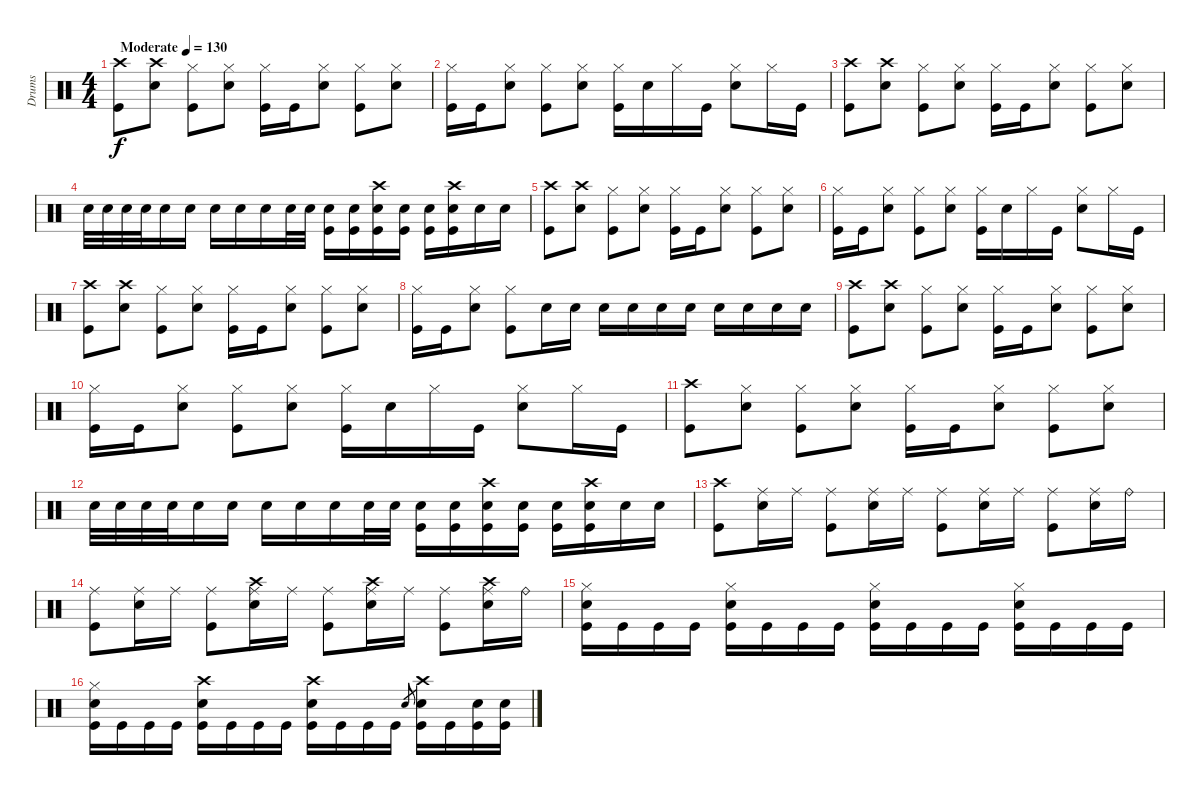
\track ("Drums" "Drums") {instrument percussion}
\staff {score}
\articulation defaults
\ts (4 4)
\tempo (130 "Moderate")
\clef neutral
\ks c
("Crash high (hit)" "Kick (hit)").8{dy f} ("Crash high (hit)" "Snare (hit) 2").8 ("Hi-Hat (closed)" "Kick (hit)").8 ("Hi-Hat (closed)" "Snare (hit) 2").8 ("Hi-Hat (closed)" "Kick (hit)").16 "Kick (hit)".16 ("Hi-Hat (closed)" "Snare (hit) 2").8 ("Hi-Hat (closed)" "Kick (hit)").8 ("Hi-Hat (closed)" "Snare (hit) 2").8 |
("Hi-Hat (closed)" "Kick (hit)").16 "Kick (hit)".16 ("Hi-Hat (closed)" "Snare (hit) 2").8 ("Hi-Hat (closed)" "Kick (hit)").8 ("Hi-Hat (closed)" "Snare (hit) 2").8 ("Hi-Hat (closed)" "Kick (hit)").16 "Snare (hit) 2".16 "Hi-Hat (closed)".16 "Kick (hit)".16 ("Hi-Hat (closed)" "Snare (hit) 2").8 "Hi-Hat (closed)".16 "Kick (hit)".16 |
("Crash high (hit)" "Kick (hit)").8 ("Crash high (hit)" "Snare (hit) 2").8 ("Hi-Hat (closed)" "Kick (hit)").8 ("Hi-Hat (closed)" "Snare (hit) 2").8 ("Hi-Hat (closed)" "Kick (hit)").16 "Kick (hit)".16 ("Hi-Hat (closed)" "Snare (hit) 2").8 ("Hi-Hat (closed)" "Kick (hit)").8 ("Hi-Hat (closed)" "Snare (hit) 2").8 |
"Snare (hit) 2".32 "Snare (hit) 2".32 "Snare (hit) 2".32 "Snare (hit) 2".32 "Snare (hit) 2".16 "Snare (hit) 2".16 "Snare (hit) 2".16 "Snare (hit) 2".16 "Snare (hit) 2".16 "Snare (hit) 2".32 "Snare (hit) 2".32 ("Snare (hit) 2" "Kick (hit)").16 ("Snare (hit) 2" "Kick (hit)").16 ("Crash high (hit)" "Kick (hit)" "Snare (hit) 2").16 ("Kick (hit)" "Snare (hit) 2").16 ("Snare (hit) 2" "Kick (hit)").16 ("Crash high (hit)" "Kick (hit)" "Snare (hit) 2").16 "Snare (hit) 2".16 "Snare (hit) 2".16 |
("Crash high (hit)" "Kick (hit)").8 ("Crash high (hit)" "Snare (hit) 2").8 ("Hi-Hat (closed)" "Kick (hit)").8 ("Hi-Hat (closed)" "Snare (hit) 2").8 ("Hi-Hat (closed)" "Kick (hit)").16 "Kick (hit)".16 ("Hi-Hat (closed)" "Snare (hit) 2").8 ("Hi-Hat (closed)" "Kick (hit)").8 ("Hi-Hat (closed)" "Snare (hit) 2").8 |
("Hi-Hat (closed)" "Kick (hit)").16 "Kick (hit)".16 ("Hi-Hat (closed)" "Snare (hit) 2").8 ("Hi-Hat (closed)" "Kick (hit)").8 ("Hi-Hat (closed)" "Snare (hit) 2").8 ("Hi-Hat (closed)" "Kick (hit)").16 "Snare (hit) 2".16 "Hi-Hat (closed)".16 "Kick (hit)".16 ("Hi-Hat (closed)" "Snare (hit) 2").8 "Hi-Hat (closed)".16 "Kick (hit)".16 |
("Crash high (hit)" "Kick (hit)").8 ("Crash high (hit)" "Snare (hit) 2").8 ("Hi-Hat (closed)" "Kick (hit)").8 ("Hi-Hat (closed)" "Snare (hit) 2").8 ("Hi-Hat (closed)" "Kick (hit)").16 "Kick (hit)".16 ("Hi-Hat (closed)" "Snare (hit) 2").8 ("Hi-Hat (closed)" "Kick (hit)").8 ("Hi-Hat (closed)" "Snare (hit) 2").8 |
("Hi-Hat (closed)" "Kick (hit)").16 "Kick (hit)".16 ("Hi-Hat (closed)" "Snare (hit) 2").8 ("Hi-Hat (closed)" "Kick (hit)").8 "Snare (hit) 2".16 "Snare (hit) 2".16 "Snare (hit) 2".16 "Snare (hit) 2".16 "Snare (hit) 2".16 "Snare (hit) 2".16 "Snare (hit) 2".16 "Snare (hit) 2".16 "Snare (hit) 2".16 "Snare (hit) 2".16 |
("Crash high (hit)" "Kick (hit)").8 ("Crash high (hit)" "Snare (hit) 2").8 ("Hi-Hat (closed)" "Kick (hit)").8 ("Hi-Hat (closed)" "Snare (hit) 2").8 ("Hi-Hat (closed)" "Kick (hit)").16 "Kick (hit)".16 ("Hi-Hat (closed)" "Snare (hit) 2").8 ("Hi-Hat (closed)" "Kick (hit)").8 ("Hi-Hat (closed)" "Snare (hit) 2").8 |
("Hi-Hat (closed)" "Kick (hit)").16 "Kick (hit)".16 ("Hi-Hat (closed)" "Snare (hit) 2").8 ("Hi-Hat (closed)" "Kick (hit)").8 ("Hi-Hat (closed)" "Snare (hit) 2").8 ("Hi-Hat (closed)" "Kick (hit)").16 "Snare (hit) 2".16 "Hi-Hat (closed)".16 "Kick (hit)".16 ("Hi-Hat (closed)" "Snare (hit) 2").8 "Hi-Hat (closed)".16 "Kick (hit)".16 |
("Crash high (hit)" "Kick (hit)").8 ("Hi-Hat (closed)" "Snare (hit) 2").8 ("Hi-Hat (closed)" "Kick (hit)").8 ("Hi-Hat (closed)" "Snare (hit) 2").8 ("Hi-Hat (closed)" "Kick (hit)").16 "Kick (hit)".16 ("Hi-Hat (closed)" "Snare (hit) 2").8 ("Hi-Hat (closed)" "Kick (hit)").8 ("Hi-Hat (closed)" "Snare (hit) 2").8 |
"Snare (hit) 2".32 "Snare (hit) 2".32 "Snare (hit) 2".32 "Snare (hit) 2".32 "Snare (hit) 2".16 "Snare (hit) 2".16 "Snare (hit) 2".16 "Snare (hit) 2".16 "Snare (hit) 2".16 "Snare (hit) 2".32 "Snare (hit) 2".32 ("Snare (hit) 2" "Kick (hit)").16 ("Snare (hit) 2" "Kick (hit)").16 ("Crash high (hit)" "Kick (hit)" "Snare (hit) 2").16 ("Kick (hit)" "Snare (hit) 2").16 ("Snare (hit) 2" "Kick (hit)").16 ("Crash high (hit)" "Kick (hit)" "Snare (hit) 2").16 "Snare (hit) 2".16 "Snare (hit) 2".16 |
("Crash high (hit)" "Kick (hit)").8 ("Ride (middle)" "Snare (hit) 2").16 "Ride (middle)".16 ("Ride (middle)" "Kick (hit)").8 ("Ride (middle)" "Snare (hit) 2").16 "Ride (middle)".16 ("Ride (middle)" "Kick (hit)").8 ("Ride (middle)" "Snare (hit) 2").16 "Ride (middle)".16 ("Ride (middle)" "Kick (hit)").8 ("Ride (middle)" "Snare (hit) 2").16 "Ride (bell)".16 |
("Ride (middle)" "Kick (hit)").8 ("Ride (middle)" "Snare (hit) 2").16 "Ride (middle)".16 ("Ride (middle)" "Kick (hit)").8 ("Ride (middle)" "Snare (hit) 2" "Crash high (hit)").16 "Ride (middle)".16 ("Ride (middle)" "Kick (hit)").8 ("Ride (middle)" "Snare (hit) 2" "Crash high (hit)").16 "Ride (middle)".16 ("Ride (middle)" "Kick (hit)").8 ("Ride (middle)" "Snare (hit) 2" "Crash high (hit)").16 "Ride (bell)".16 |
("Kick (hit)" "Snare (hit) 2" "Hi-Hat (closed)").16 "Kick (hit)".16 "Kick (hit)".16 "Kick (hit)".16 ("Kick (hit)" "Snare (hit) 2" "Hi-Hat (closed)").16 "Kick (hit)".16 "Kick (hit)".16 "Kick (hit)".16 ("Kick (hit)" "Snare (hit) 2" "Hi-Hat (closed)").16 "Kick (hit)".16 "Kick (hit)".16 "Kick (hit)".16 ("Kick (hit)" "Snare (hit) 2" "Hi-Hat (closed)").16 "Kick (hit)".16 "Kick (hit)".16 "Kick (hit)".16 |
("Kick (hit)" "Snare (hit) 2" "Hi-Hat (closed)").16 "Kick (hit)".16 "Kick (hit)".16 "Kick (hit)".16 ("Kick (hit)" "Snare (hit) 2" "Crash high (hit)").16 "Kick (hit)".16 "Kick (hit)".16 "Kick (hit)".16 ("Kick (hit)" "Snare (hit) 2" "Crash high (hit)").16 "Kick (hit)".16 "Kick (hit)".16 "Kick (hit)".16 "Snare (hit) 2".8{gr} ("Kick (hit)" "Snare (hit) 2" "Crash high (hit)").16 "Kick (hit)".16 ("Kick (hit)" "Snare (hit) 2").16 ("Kick (hit)" "Snare (hit) 2").16
